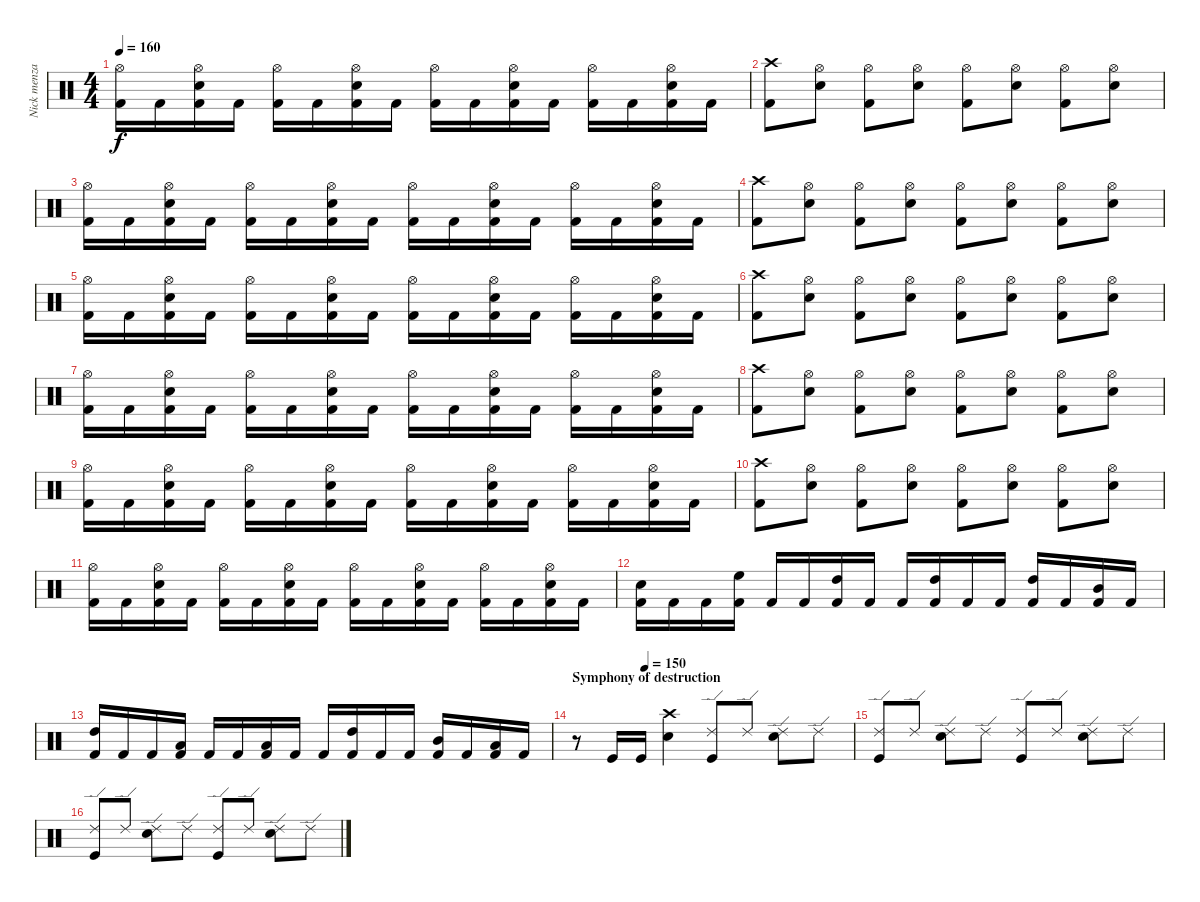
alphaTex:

\track ("Nick menza/Jimmy de grasso" "Nick menza") {instrument percussion}
\staff {score}
\articulation defaults
\ts (4 4)
\tempo 160
\clef neutral
\ks c
("Hi-Hat (open)" "Kick (hit) 2").16{dy f} "Kick (hit) 2".16 ("Hi-Hat (open)" "Snare (hit) 2" "Kick (hit) 2").16 "Kick (hit) 2".16 ("Hi-Hat (open)" "Kick (hit) 2").16 "Kick (hit) 2".16 ("Hi-Hat (open)" "Snare (hit) 2" "Kick (hit) 2").16 "Kick (hit) 2".16 ("Hi-Hat (open)" "Kick (hit) 2").16 "Kick (hit) 2".16 ("Hi-Hat (open)" "Snare (hit) 2" "Kick (hit) 2").16 "Kick (hit) 2".16 ("Hi-Hat (open)" "Kick (hit) 2").16 "Kick (hit) 2".16 ("Hi-Hat (open)" "Snare (hit) 2" "Kick (hit) 2").16 "Kick (hit) 2".16 |
("Crash high (hit)" "Kick (hit) 2").8 ("Hi-Hat (open)" "Snare (hit) 2").8 ("Hi-Hat (open)" "Kick (hit) 2").8 ("Hi-Hat (open)" "Snare (hit) 2").8 ("Hi-Hat (open)" "Kick (hit) 2").8 ("Hi-Hat (open)" "Snare (hit) 2").8 ("Hi-Hat (open)" "Kick (hit) 2").8 ("Hi-Hat (open)" "Snare (hit) 2").8 |
("Hi-Hat (open)" "Kick (hit) 2").16 "Kick (hit) 2".16 ("Hi-Hat (open)" "Snare (hit) 2" "Kick (hit) 2").16 "Kick (hit) 2".16 ("Hi-Hat (open)" "Kick (hit) 2").16 "Kick (hit) 2".16 ("Hi-Hat (open)" "Snare (hit) 2" "Kick (hit) 2").16 "Kick (hit) 2".16 ("Hi-Hat (open)" "Kick (hit) 2").16 "Kick (hit) 2".16 ("Hi-Hat (open)" "Snare (hit) 2" "Kick (hit) 2").16 "Kick (hit) 2".16 ("Hi-Hat (open)" "Kick (hit) 2").16 "Kick (hit) 2".16 ("Hi-Hat (open)" "Snare (hit) 2" "Kick (hit) 2").16 "Kick (hit) 2".16 |
("Crash high (hit)" "Kick (hit) 2").8 ("Hi-Hat (open)" "Snare (hit) 2").8 ("Hi-Hat (open)" "Kick (hit) 2").8 ("Hi-Hat (open)" "Snare (hit) 2").8 ("Hi-Hat (open)" "Kick (hit) 2").8 ("Hi-Hat (open)" "Snare (hit) 2").8 ("Hi-Hat (open)" "Kick (hit) 2").8 ("Hi-Hat (open)" "Snare (hit) 2").8 |
("Hi-Hat (open)" "Kick (hit) 2").16 "Kick (hit) 2".16 ("Hi-Hat (open)" "Snare (hit) 2" "Kick (hit) 2").16 "Kick (hit) 2".16 ("Hi-Hat (open)" "Kick (hit) 2").16 "Kick (hit) 2".16 ("Hi-Hat (open)" "Snare (hit) 2" "Kick (hit) 2").16 "Kick (hit) 2".16 ("Hi-Hat (open)" "Kick (hit) 2").16 "Kick (hit) 2".16 ("Hi-Hat (open)" "Snare (hit) 2" "Kick (hit) 2").16 "Kick (hit) 2".16 ("Hi-Hat (open)" "Kick (hit) 2").16 "Kick (hit) 2".16 ("Hi-Hat (open)" "Snare (hit) 2" "Kick (hit) 2").16 "Kick (hit) 2".16 |
("Crash high (hit)" "Kick (hit) 2").8 ("Hi-Hat (open)" "Snare (hit) 2").8 ("Hi-Hat (open)" "Kick (hit) 2").8 ("Hi-Hat (open)" "Snare (hit) 2").8 ("Hi-Hat (open)" "Kick (hit) 2").8 ("Hi-Hat (open)" "Snare (hit) 2").8 ("Hi-Hat (open)" "Kick (hit) 2").8 ("Hi-Hat (open)" "Snare (hit) 2").8 |
("Hi-Hat (open)" "Kick (hit) 2").16 "Kick (hit) 2".16 ("Hi-Hat (open)" "Snare (hit) 2" "Kick (hit) 2").16 "Kick (hit) 2".16 ("Hi-Hat (open)" "Kick (hit) 2").16 "Kick (hit) 2".16 ("Hi-Hat (open)" "Snare (hit) 2" "Kick (hit) 2").16 "Kick (hit) 2".16 ("Hi-Hat (open)" "Kick (hit) 2").16 "Kick (hit) 2".16 ("Hi-Hat (open)" "Snare (hit) 2" "Kick (hit) 2").16 "Kick (hit) 2".16 ("Hi-Hat (open)" "Kick (hit) 2").16 "Kick (hit) 2".16 ("Hi-Hat (open)" "Snare (hit) 2" "Kick (hit) 2").16 "Kick (hit) 2".16 |
("Crash high (hit)" "Kick (hit) 2").8 ("Hi-Hat (open)" "Snare (hit) 2").8 ("Hi-Hat (open)" "Kick (hit) 2").8 ("Hi-Hat (open)" "Snare (hit) 2").8 ("Hi-Hat (open)" "Kick (hit) 2").8 ("Hi-Hat (open)" "Snare (hit) 2").8 ("Hi-Hat (open)" "Kick (hit) 2").8 ("Hi-Hat (open)" "Snare (hit) 2").8 |
("Hi-Hat (open)" "Kick (hit) 2").16 "Kick (hit) 2".16 ("Hi-Hat (open)" "Snare (hit) 2" "Kick (hit) 2").16 "Kick (hit) 2".16 ("Hi-Hat (open)" "Kick (hit) 2").16 "Kick (hit) 2".16 ("Hi-Hat (open)" "Snare (hit) 2" "Kick (hit) 2").16 "Kick (hit) 2".16 ("Hi-Hat (open)" "Kick (hit) 2").16 "Kick (hit) 2".16 ("Hi-Hat (open)" "Snare (hit) 2" "Kick (hit) 2").16 "Kick (hit) 2".16 ("Hi-Hat (open)" "Kick (hit) 2").16 "Kick (hit) 2".16 ("Hi-Hat (open)" "Snare (hit) 2" "Kick (hit) 2").16 "Kick (hit) 2".16 |
("Crash high (hit)" "Kick (hit) 2").8 ("Hi-Hat (open)" "Snare (hit) 2").8 ("Hi-Hat (open)" "Kick (hit) 2").8 ("Hi-Hat (open)" "Snare (hit) 2").8 ("Hi-Hat (open)" "Kick (hit) 2").8 ("Hi-Hat (open)" "Snare (hit) 2").8 ("Hi-Hat (open)" "Kick (hit) 2").8 ("Hi-Hat (open)" "Snare (hit) 2").8 |
("Hi-Hat (open)" "Kick (hit) 2").16 "Kick (hit) 2".16 ("Hi-Hat (open)" "Snare (hit) 2" "Kick (hit) 2").16 "Kick (hit) 2".16 ("Hi-Hat (open)" "Kick (hit) 2").16 "Kick (hit) 2".16 ("Hi-Hat (open)" "Snare (hit) 2" "Kick (hit) 2").16 "Kick (hit) 2".16 ("Hi-Hat (open)" "Kick (hit) 2").16 "Kick (hit) 2".16 ("Hi-Hat (open)" "Snare (hit) 2" "Kick (hit) 2").16 "Kick (hit) 2".16 ("Hi-Hat (open)" "Kick (hit) 2").16 "Kick (hit) 2".16 ("Hi-Hat (open)" "Snare (hit) 2" "Kick (hit) 2").16 "Kick (hit) 2".16 |
("Snare (hit) 2" "Kick (hit) 2").16 "Kick (hit) 2".16 "Kick (hit) 2".16 ("High Floor Tom (hit)" "Kick (hit) 2").16 "Kick (hit) 2".16 "Kick (hit) 2".16 ("High Tom (hit)" "Kick (hit) 2").16 "Kick (hit) 2".16 "Kick (hit) 2".16 ("High Tom (hit)" "Kick (hit) 2").16 "Kick (hit) 2".16 "Kick (hit) 2".16 ("High Tom (hit)" "Kick (hit) 2").16 "Kick (hit) 2".16 ("Mid Tom (hit)" "Kick (hit) 2").16 "Kick (hit) 2".16 |
("High Tom (hit)" "Kick (hit) 2").16 "Kick (hit) 2".16 "Kick (hit) 2".16 ("Low Tom (hit)" "Kick (hit) 2").16 "Kick (hit) 2".16 "Kick (hit) 2".16 ("Low Tom (hit)" "Kick (hit) 2").16 "Kick (hit) 2".16 "Kick (hit) 2".16 ("High Tom (hit)" "Kick (hit) 2").16 "Kick (hit) 2".16 "Kick (hit) 2".16 ("Mid Tom (hit)" "Kick (hit) 2").16 "Kick (hit) 2".16 ("Low Tom (hit)" "Kick (hit) 2").16 "Kick (hit) 2".16 |
\section ("" "Symphony of destruction")
\tempo (150 0.25)
r.8 "Kick (hit)".16 "Kick (hit)".16 ("Crash high (hit)" "Snare (hit) 2").4 ("Ride (edge) 2" "Kick (hit)").8 "Ride (edge) 2".8 ("Ride (edge) 2" "Snare (hit) 2").8 "Ride (edge) 2".8 |
("Ride (edge) 2" "Kick (hit)").8 "Ride (edge) 2".8 ("Ride (edge) 2" "Snare (hit) 2").8 "Ride (edge) 2".8 ("Ride (edge) 2" "Kick (hit)").8 "Ride (edge) 2".8 ("Ride (edge) 2" "Snare (hit) 2").8 "Ride (edge) 2".8 |
("Ride (edge) 2" "Kick (hit)").8 "Ride (edge) 2".8 ("Ride (edge) 2" "Snare (hit) 2").8 "Ride (edge) 2".8 ("Ride (edge) 2" "Kick (hit)").8 "Ride (edge) 2".8 ("Ride (edge) 2" "Snare (hit) 2").8 "Ride (edge) 2".8
